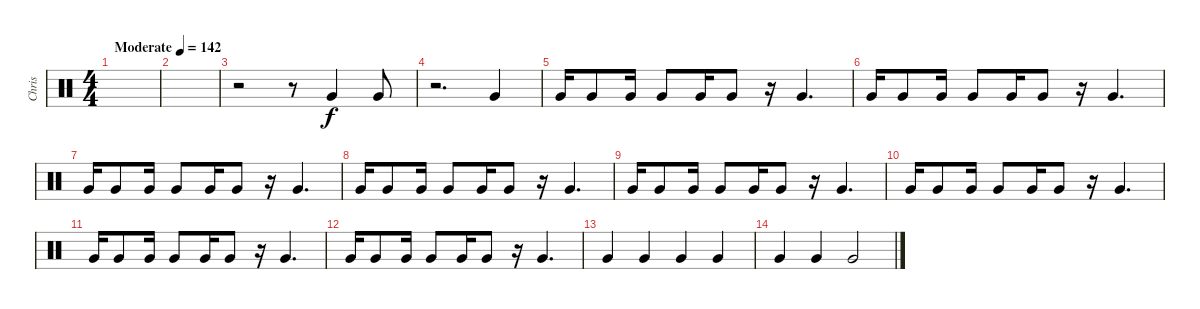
\track ("Chris" "Chris") {instrument percussion}
\staff {score}
\articulation defaults
\ts (4 4)
\tempo (142 "Moderate")
\clef neutral
\ks c
|
|
r.2 r.8 "Very Low Tom (hit)".4 "Very Low Tom (hit)".8 |
r.2{d} "Very Low Tom (hit)".4 |
"Very Low Tom (hit)".16 "Very Low Tom (hit)".8 "Very Low Tom (hit)".16 "Very Low Tom (hit)".8 "Very Low Tom (hit)".16 "Very Low Tom (hit)".8 r.16 "Very Low Tom (hit)".4{d} |
"Very Low Tom (hit)".16 "Very Low Tom (hit)".8 "Very Low Tom (hit)".16 "Very Low Tom (hit)".8 "Very Low Tom (hit)".16 "Very Low Tom (hit)".8 r.16 "Very Low Tom (hit)".4{d} |
"Very Low Tom (hit)".16 "Very Low Tom (hit)".8 "Very Low Tom (hit)".16 "Very Low Tom (hit)".8 "Very Low Tom (hit)".16 "Very Low Tom (hit)".8 r.16 "Very Low Tom (hit)".4{d} |
"Very Low Tom (hit)".16 "Very Low Tom (hit)".8 "Very Low Tom (hit)".16 "Very Low Tom (hit)".8 "Very Low Tom (hit)".16 "Very Low Tom (hit)".8 r.16 "Very Low Tom (hit)".4{d} |
"Very Low Tom (hit)".16 "Very Low Tom (hit)".8 "Very Low Tom (hit)".16 "Very Low Tom (hit)".8 "Very Low Tom (hit)".16 "Very Low Tom (hit)".8 r.16 "Very Low Tom (hit)".4{d} |
"Very Low Tom (hit)".16 "Very Low Tom (hit)".8 "Very Low Tom (hit)".16 "Very Low Tom (hit)".8 "Very Low Tom (hit)".16 "Very Low Tom (hit)".8 r.16 "Very Low Tom (hit)".4{d} |
"Very Low Tom (hit)".16 "Very Low Tom (hit)".8 "Very Low Tom (hit)".16 "Very Low Tom (hit)".8 "Very Low Tom (hit)".16 "Very Low Tom (hit)".8 r.16 "Very Low Tom (hit)".4{d} |
"Very Low Tom (hit)".16 "Very Low Tom (hit)".8 "Very Low Tom (hit)".16 "Very Low Tom (hit)".8 "Very Low Tom (hit)".16 "Very Low Tom (hit)".8 r.16 "Very Low Tom (hit)".4{d} |
"Very Low Tom (hit)".4 "Very Low Tom (hit)".4 "Very Low Tom (hit)".4 "Very Low Tom (hit)".4 |
"Very Low Tom (hit)".4 "Very Low Tom (hit)".4 "Very Low Tom (hit)".2
